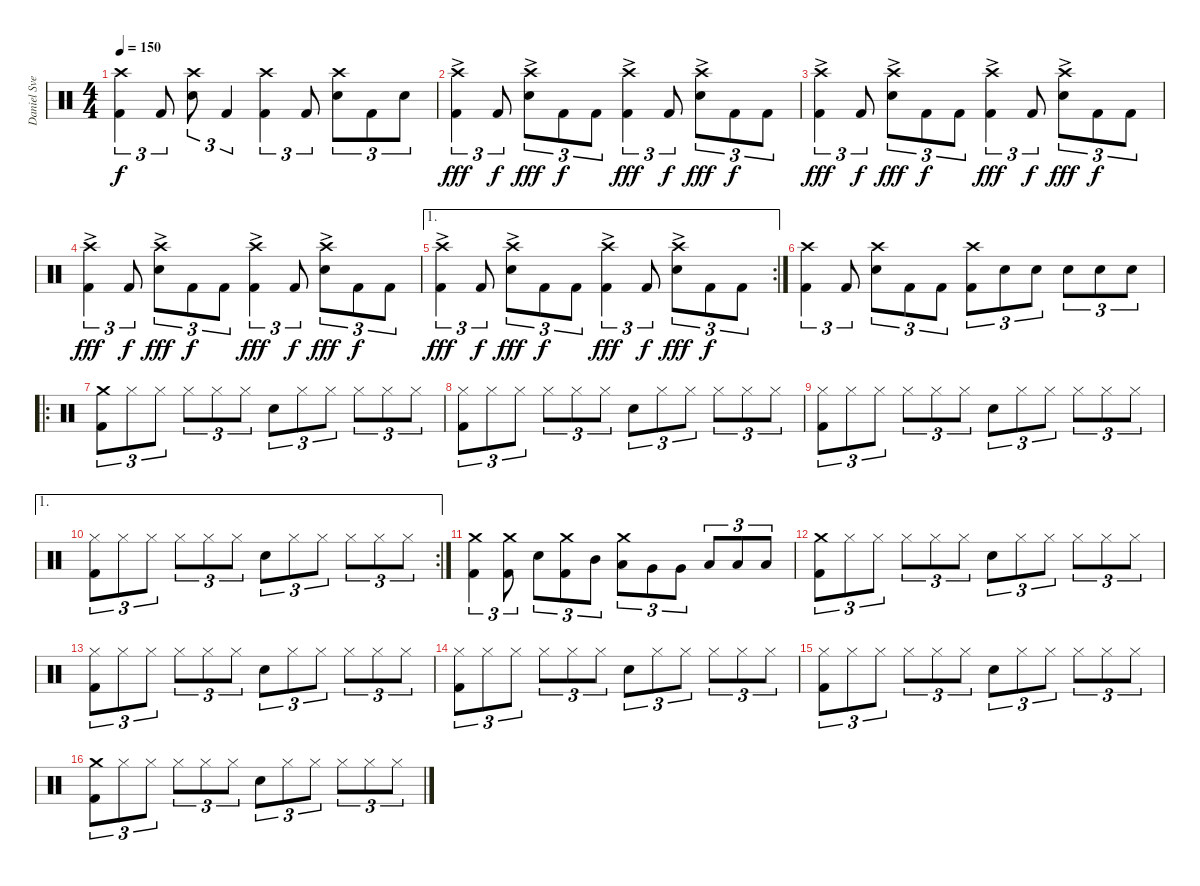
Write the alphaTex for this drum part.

\track ("Daniel Svensson" "Daniel Sve") {instrument percussion}
\staff {score}
\articulation defaults
\ts (4 4)
\tempo 150
\clef neutral
\ks c
("Crash high (hit)" "Kick (hit) 2").4{tu (3 2) dy f} "Kick (hit) 2".8{tu (3 2)} ("Crash high (hit)" "Electric Snare (hit)").8{tu (3 2)} "Kick (hit) 2".4{tu (3 2)} ("Crash high (hit)" "Kick (hit) 2").4{tu (3 2)} "Kick (hit) 2".8{tu (3 2)} ("Electric Snare (hit)" "Crash high (hit)").8{tu (3 2)} "Kick (hit) 2".8{tu (3 2)} "Electric Snare (hit)".8{tu (3 2)} |
("Crash high (hit)"{ac} "Kick (hit) 2").4{tu (3 2) dy fff} "Kick (hit) 2".8{tu (3 2) dy f} ("Crash high (hit)"{ac} "Electric Snare (hit)").8{tu (3 2) dy fff} "Kick (hit) 2".8{tu (3 2) dy f} "Kick (hit) 2".8{tu (3 2)} ("Crash high (hit)"{ac} "Kick (hit) 2").4{tu (3 2) dy fff} "Kick (hit) 2".8{tu (3 2) dy f} ("Electric Snare (hit)" "Crash high (hit)"{ac}).8{tu (3 2) dy fff} "Kick (hit) 2".8{tu (3 2) dy f} "Kick (hit) 2".8{tu (3 2)} |
("Crash high (hit)"{ac} "Kick (hit) 2").4{tu (3 2) dy fff} "Kick (hit) 2".8{tu (3 2) dy f} ("Crash high (hit)"{ac} "Electric Snare (hit)").8{tu (3 2) dy fff} "Kick (hit) 2".8{tu (3 2) dy f} "Kick (hit) 2".8{tu (3 2)} ("Crash high (hit)"{ac} "Kick (hit) 2").4{tu (3 2) dy fff} "Kick (hit) 2".8{tu (3 2) dy f} ("Electric Snare (hit)" "Crash high (hit)"{ac}).8{tu (3 2) dy fff} "Kick (hit) 2".8{tu (3 2) dy f} "Kick (hit) 2".8{tu (3 2)} |
("Crash high (hit)"{ac} "Kick (hit) 2").4{tu (3 2) dy fff} "Kick (hit) 2".8{tu (3 2) dy f} ("Crash high (hit)"{ac} "Electric Snare (hit)").8{tu (3 2) dy fff} "Kick (hit) 2".8{tu (3 2) dy f} "Kick (hit) 2".8{tu (3 2)} ("Crash high (hit)"{ac} "Kick (hit) 2").4{tu (3 2) dy fff} "Kick (hit) 2".8{tu (3 2) dy f} ("Electric Snare (hit)" "Crash high (hit)"{ac}).8{tu (3 2) dy fff} "Kick (hit) 2".8{tu (3 2) dy f} "Kick (hit) 2".8{tu (3 2)} |
\ae 1
\rc 2
("Crash high (hit)"{ac} "Kick (hit) 2").4{tu (3 2) dy fff} "Kick (hit) 2".8{tu (3 2) dy f} ("Crash high (hit)"{ac} "Electric Snare (hit)").8{tu (3 2) dy fff} "Kick (hit) 2".8{tu (3 2) dy f} "Kick (hit) 2".8{tu (3 2)} ("Crash high (hit)"{ac} "Kick (hit) 2").4{tu (3 2) dy fff} "Kick (hit) 2".8{tu (3 2) dy f} ("Electric Snare (hit)" "Crash high (hit)"{ac}).8{tu (3 2) dy fff} "Kick (hit) 2".8{tu (3 2) dy f} "Kick (hit) 2".8{tu (3 2)} |
("Crash high (hit)" "Kick (hit) 2").4{tu (3 2)} "Kick (hit) 2".8{tu (3 2)} ("Crash high (hit)" "Electric Snare (hit)").8{tu (3 2)} "Kick (hit) 2".8{tu (3 2)} "Kick (hit) 2".8{tu (3 2)} ("Crash high (hit)" "Kick (hit) 2").8{tu (3 2)} "Electric Snare (hit)".8{tu (3 2)} "Electric Snare (hit)".8{tu (3 2)} "Electric Snare (hit)".8{tu (3 2)} "Electric Snare (hit)".8{tu (3 2)} "Electric Snare (hit)".8{tu (3 2)} |
\ro
("Crash medium (hit)" "Kick (hit) 2").8{tu (3 2)} "Hi-Hat (closed)".8{tu (3 2)} "Hi-Hat (closed)".8{tu (3 2)} "Hi-Hat (closed)".8{tu (3 2)} "Hi-Hat (closed)".8{tu (3 2)} "Hi-Hat (closed)".8{tu (3 2)} "Electric Snare (hit)".8{tu (3 2)} "Hi-Hat (closed)".8{tu (3 2)} "Hi-Hat (closed)".8{tu (3 2)} "Hi-Hat (closed)".8{tu (3 2)} "Hi-Hat (closed)".8{tu (3 2)} "Hi-Hat (closed)".8{tu (3 2)} |
("Hi-Hat (closed)" "Kick (hit) 2").8{tu (3 2)} "Hi-Hat (closed)".8{tu (3 2)} "Hi-Hat (closed)".8{tu (3 2)} "Hi-Hat (closed)".8{tu (3 2)} "Hi-Hat (closed)".8{tu (3 2)} "Hi-Hat (closed)".8{tu (3 2)} "Electric Snare (hit)".8{tu (3 2)} "Hi-Hat (closed)".8{tu (3 2)} "Hi-Hat (closed)".8{tu (3 2)} "Hi-Hat (closed)".8{tu (3 2)} "Hi-Hat (closed)".8{tu (3 2)} "Hi-Hat (closed)".8{tu (3 2)} |
("Hi-Hat (closed)" "Kick (hit) 2").8{tu (3 2)} "Hi-Hat (closed)".8{tu (3 2)} "Hi-Hat (closed)".8{tu (3 2)} "Hi-Hat (closed)".8{tu (3 2)} "Hi-Hat (closed)".8{tu (3 2)} "Hi-Hat (closed)".8{tu (3 2)} "Electric Snare (hit)".8{tu (3 2)} "Hi-Hat (closed)".8{tu (3 2)} "Hi-Hat (closed)".8{tu (3 2)} "Hi-Hat (closed)".8{tu (3 2)} "Hi-Hat (closed)".8{tu (3 2)} "Hi-Hat (closed)".8{tu (3 2)} |
\ae 1
\rc 2
("Hi-Hat (closed)" "Kick (hit) 2").8{tu (3 2)} "Hi-Hat (closed)".8{tu (3 2)} "Hi-Hat (closed)".8{tu (3 2)} "Hi-Hat (closed)".8{tu (3 2)} "Hi-Hat (closed)".8{tu (3 2)} "Hi-Hat (closed)".8{tu (3 2)} "Electric Snare (hit)".8{tu (3 2)} "Hi-Hat (closed)".8{tu (3 2)} "Hi-Hat (closed)".8{tu (3 2)} "Hi-Hat (closed)".8{tu (3 2)} "Hi-Hat (closed)".8{tu (3 2)} "Hi-Hat (closed)".8{tu (3 2)} |
("Crash medium (hit)" "Kick (hit) 2").4{tu (3 2)} ("Crash medium (hit)" "Kick (hit) 2").8{tu (3 2)} "Electric Snare (hit)".8{tu (3 2)} ("Crash medium (hit)" "Kick (hit) 2").8{tu (3 2)} "Mid Tom (hit)".8{tu (3 2)} ("Crash medium (hit)" "Low Tom (hit)").8{tu (3 2)} "Very Low Tom (hit)".8{tu (3 2)} "Very Low Tom (hit)".8{tu (3 2)} "Low Floor Tom (hit)".8{tu (3 2)} "Low Floor Tom (hit)".8{tu (3 2)} "Low Floor Tom (hit)".8{tu (3 2)} |
("Crash medium (hit)" "Kick (hit) 2").8{tu (3 2)} "Hi-Hat (closed)".8{tu (3 2)} "Hi-Hat (closed)".8{tu (3 2)} "Hi-Hat (closed)".8{tu (3 2)} "Hi-Hat (closed)".8{tu (3 2)} "Hi-Hat (closed)".8{tu (3 2)} "Electric Snare (hit)".8{tu (3 2)} "Hi-Hat (closed)".8{tu (3 2)} "Hi-Hat (closed)".8{tu (3 2)} "Hi-Hat (closed)".8{tu (3 2)} "Hi-Hat (closed)".8{tu (3 2)} "Hi-Hat (closed)".8{tu (3 2)} |
("Hi-Hat (closed)" "Kick (hit) 2").8{tu (3 2)} "Hi-Hat (closed)".8{tu (3 2)} "Hi-Hat (closed)".8{tu (3 2)} "Hi-Hat (closed)".8{tu (3 2)} "Hi-Hat (closed)".8{tu (3 2)} "Hi-Hat (closed)".8{tu (3 2)} "Electric Snare (hit)".8{tu (3 2)} "Hi-Hat (closed)".8{tu (3 2)} "Hi-Hat (closed)".8{tu (3 2)} "Hi-Hat (closed)".8{tu (3 2)} "Hi-Hat (closed)".8{tu (3 2)} "Hi-Hat (closed)".8{tu (3 2)} |
("Hi-Hat (closed)" "Kick (hit) 2").8{tu (3 2)} "Hi-Hat (closed)".8{tu (3 2)} "Hi-Hat (closed)".8{tu (3 2)} "Hi-Hat (closed)".8{tu (3 2)} "Hi-Hat (closed)".8{tu (3 2)} "Hi-Hat (closed)".8{tu (3 2)} "Electric Snare (hit)".8{tu (3 2)} "Hi-Hat (closed)".8{tu (3 2)} "Hi-Hat (closed)".8{tu (3 2)} "Hi-Hat (closed)".8{tu (3 2)} "Hi-Hat (closed)".8{tu (3 2)} "Hi-Hat (closed)".8{tu (3 2)} |
("Hi-Hat (closed)" "Kick (hit) 2").8{tu (3 2)} "Hi-Hat (closed)".8{tu (3 2)} "Hi-Hat (closed)".8{tu (3 2)} "Hi-Hat (closed)".8{tu (3 2)} "Hi-Hat (closed)".8{tu (3 2)} "Hi-Hat (closed)".8{tu (3 2)} "Electric Snare (hit)".8{tu (3 2)} "Hi-Hat (closed)".8{tu (3 2)} "Hi-Hat (closed)".8{tu (3 2)} "Hi-Hat (closed)".8{tu (3 2)} "Hi-Hat (closed)".8{tu (3 2)} "Hi-Hat (closed)".8{tu (3 2)} |
("Crash medium (hit)" "Kick (hit) 2").8{tu (3 2)} "Hi-Hat (closed)".8{tu (3 2)} "Hi-Hat (closed)".8{tu (3 2)} "Hi-Hat (closed)".8{tu (3 2)} "Hi-Hat (closed)".8{tu (3 2)} "Hi-Hat (closed)".8{tu (3 2)} "Electric Snare (hit)".8{tu (3 2)} "Hi-Hat (closed)".8{tu (3 2)} "Hi-Hat (closed)".8{tu (3 2)} "Hi-Hat (closed)".8{tu (3 2)} "Hi-Hat (closed)".8{tu (3 2)} "Hi-Hat (closed)".8{tu (3 2)}
